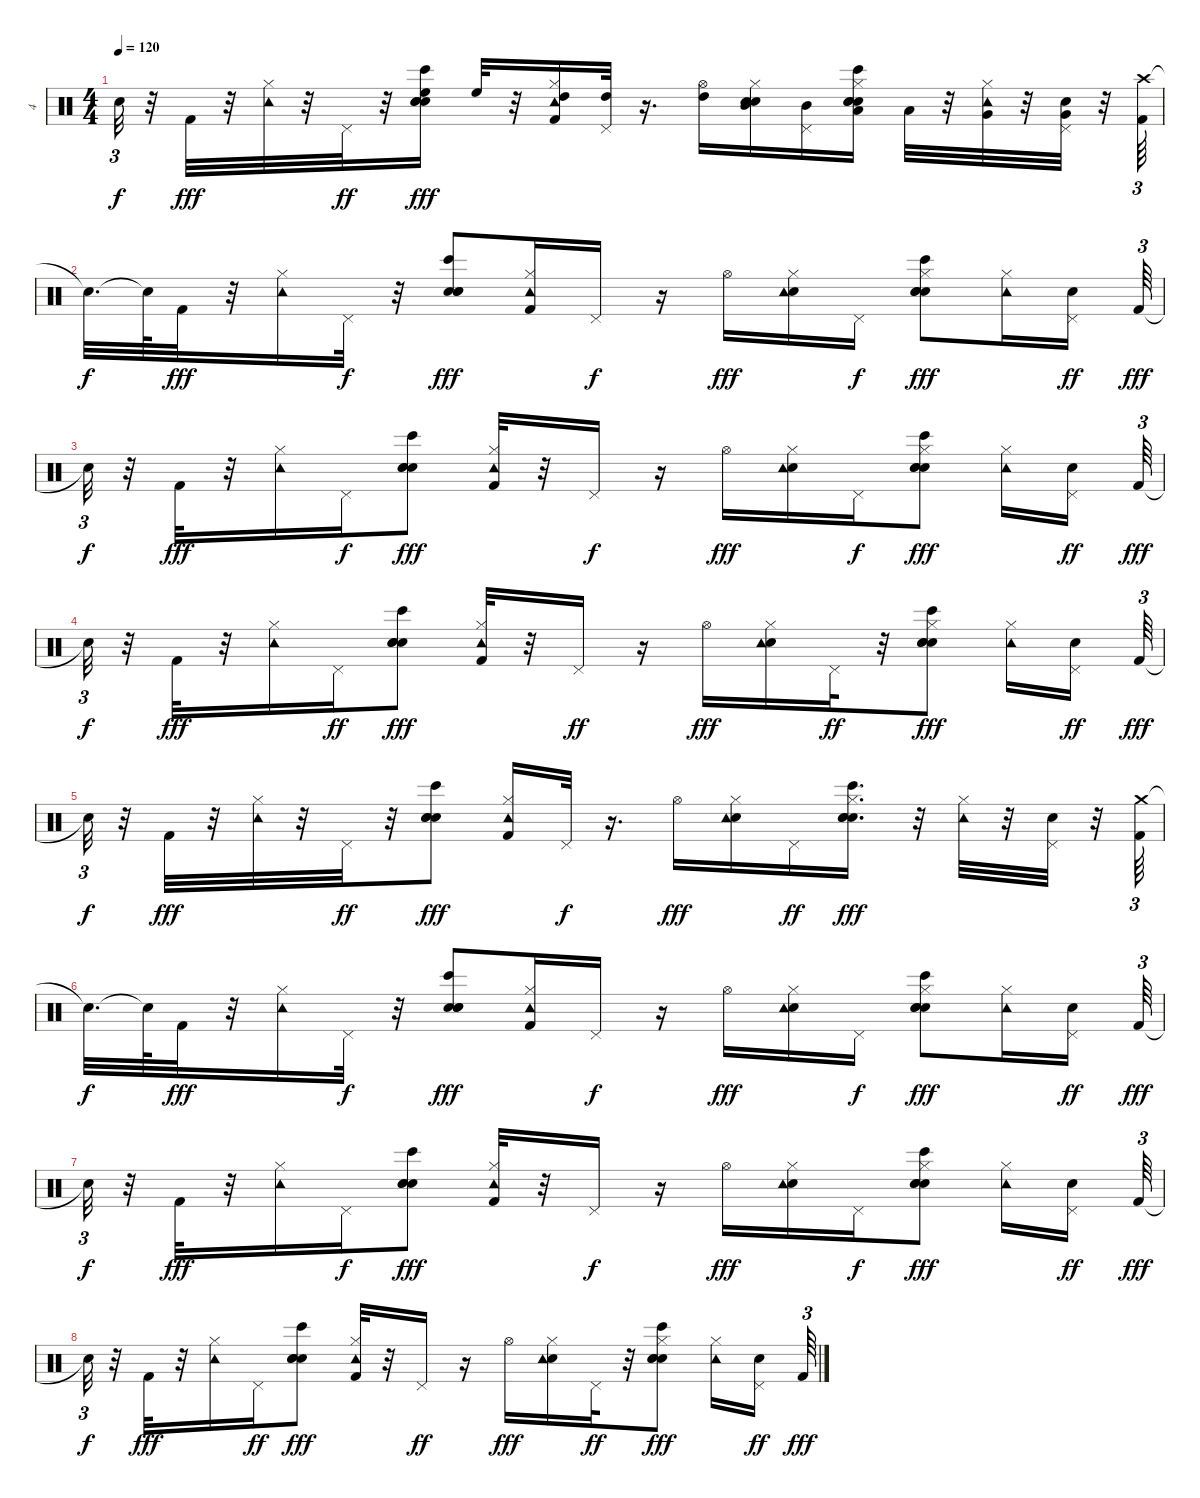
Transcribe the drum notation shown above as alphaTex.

\track ("4" "4") {instrument percussion}
\staff {score}
\articulation defaults
\ts (4 4)
\tempo 120
\clef neutral
\ks c "Snare (hit)"{t}.32{tu (3 2) dy f}
r.32 "Kick (hit) 2".32{dy fff} r.32 ("Hi-Hat (closed)" "Tambourine (hit)").32 r.32 "Pedal Hi-Hat (hit)".32{dy ff} r.32 ("Snare (hit) 2" "Electric Snare (hit)" "Bongo High (hit)" "Hand Clap (hit)" "High Floor Tom (hit)").16{dy fff} "High Floor Tom (hit)".32 r.32 ("Hi-Hat (closed)" "High Tom (hit)" "Kick (hit) 2" "Tambourine (hit)").16 ("Pedal Hi-Hat (hit)" "High Tom (hit)").32 r.16{d} ("Hi-Hat (open)" "High Tom (hit)").16 ("Snare (hit) 2" "Hi-Hat (closed)" "Mid Tom (hit)" "Electric Snare (hit)" "Tambourine (hit)").16 ("Pedal Hi-Hat (hit)" "Mid Tom (hit)").16 ("Snare (hit) 2" "Electric Snare (hit)" "Hand Clap (hit)" "Hi-Hat (closed)" "Bongo High (hit)" "Low Tom (hit)").16 "Low Tom (hit)".32 r.32 ("Hi-Hat (closed)" "Very Low Tom (hit)" "Tambourine (hit)").32 r.32 ("Pedal Hi-Hat (hit)" "Snare (hit) 2" "Very Low Tom (hit)").32 r.32 ("Crash high (hit)" "Kick (hit) 2").64{tu (3 2)} |
"Snare (hit)"{t}.32{d dy f} "Snare (hit)"{t}.64 "Kick (hit) 2".32{dy fff} r.32 ("Hi-Hat (closed)" "Tambourine (hit)").16 "Pedal Hi-Hat (hit)".32{dy f} r.32 ("Snare (hit) 2" "Bongo High (hit)" "Hand Clap (hit)" "Electric Snare (hit)").8{dy fff} ("Hi-Hat (closed)" "Tambourine (hit)" "Kick (hit) 2").16 "Pedal Hi-Hat (hit)".16{dy f} r.16 "Hi-Hat (open)".16{dy fff} ("Hi-Hat (closed)" "Snare (hit) 2" "Tambourine (hit)").16 "Pedal Hi-Hat (hit)".16{dy f} ("Snare (hit) 2" "Hi-Hat (closed)" "Hand Clap (hit)" "Bongo High (hit)" "Electric Snare (hit)").8{dy fff} ("Hi-Hat (closed)" "Tambourine (hit)").16 ("Pedal Hi-Hat (hit)" "Snare (hit) 2").16{dy ff} "Kick (hit) 2".64{tu (3 2) dy fff} |
"Snare (hit)"{t}.32{tu (3 2) dy f} r.32 "Kick (hit) 2".32{dy fff} r.32 ("Hi-Hat (closed)" "Tambourine (hit)").16 "Pedal Hi-Hat (hit)".16{dy f} ("Snare (hit) 2" "Electric Snare (hit)" "Bongo High (hit)" "Hand Clap (hit)").8{dy fff} ("Hi-Hat (closed)" "Kick (hit) 2" "Tambourine (hit)").32 r.32 "Pedal Hi-Hat (hit)".16{dy f} r.16 "Hi-Hat (open)".16{dy fff} ("Snare (hit) 2" "Hi-Hat (closed)" "Tambourine (hit)").16 "Pedal Hi-Hat (hit)".16{dy f} ("Snare (hit) 2" "Hand Clap (hit)" "Hi-Hat (closed)" "Bongo High (hit)" "Electric Snare (hit)").8{dy fff} ("Hi-Hat (closed)" "Tambourine (hit)").16 ("Pedal Hi-Hat (hit)" "Snare (hit) 2").16{dy ff beam splitsecondary} "Kick (hit) 2".64{tu (3 2) dy fff} |
"Snare (hit)"{t}.32{tu (3 2) dy f} r.32 "Kick (hit) 2".32{dy fff} r.32 ("Hi-Hat (closed)" "Tambourine (hit)").16 "Pedal Hi-Hat (hit)".16{dy ff} ("Snare (hit) 2" "Electric Snare (hit)" "Bongo High (hit)" "Hand Clap (hit)").8{dy fff} ("Hi-Hat (closed)" "Kick (hit) 2" "Tambourine (hit)").32 r.32 "Pedal Hi-Hat (hit)".16{dy ff} r.16 "Hi-Hat (open)".16{dy fff} ("Snare (hit) 2" "Hi-Hat (closed)" "Tambourine (hit)").16 "Pedal Hi-Hat (hit)".32{dy ff} r.32 ("Snare (hit) 2" "Electric Snare (hit)" "Hi-Hat (closed)" "Hand Clap (hit)" "Bongo High (hit)").8{dy fff} ("Hi-Hat (closed)" "Tambourine (hit)").16 ("Pedal Hi-Hat (hit)" "Snare (hit) 2").16{dy ff beam splitsecondary} "Kick (hit) 2".64{tu (3 2) dy fff} |
"Snare (hit)"{t}.32{tu (3 2) dy f} r.32 "Kick (hit) 2".32{dy fff} r.32 ("Hi-Hat (closed)" "Tambourine (hit)").32 r.32 "Pedal Hi-Hat (hit)".32{dy ff} r.32 ("Snare (hit) 2" "Electric Snare (hit)" "Bongo High (hit)" "Hand Clap (hit)").8{dy fff} ("Hi-Hat (closed)" "Kick (hit) 2" "Tambourine (hit)").16 "Pedal Hi-Hat (hit)".32{dy f} r.16{d} "Hi-Hat (open)".16{dy fff} ("Snare (hit) 2" "Hi-Hat (closed)" "Tambourine (hit)").16 "Pedal Hi-Hat (hit)".16{dy ff} ("Snare (hit) 2" "Electric Snare (hit)" "Hand Clap (hit)" "Hi-Hat (closed)" "Bongo High (hit)").16{d dy fff} r.32 ("Hi-Hat (closed)" "Tambourine (hit)").32 r.32 ("Pedal Hi-Hat (hit)" "Snare (hit) 2").32 r.32 ("Crash medium (hit)" "Kick (hit) 2").64{tu (3 2)} |
"Snare (hit)"{t}.32{d dy f} "Snare (hit)"{t}.64 "Kick (hit) 2".32{dy fff} r.32 ("Hi-Hat (closed)" "Tambourine (hit)").16 "Pedal Hi-Hat (hit)".32{dy f} r.32 ("Snare (hit) 2" "Bongo High (hit)" "Hand Clap (hit)" "Electric Snare (hit)").8{dy fff} ("Hi-Hat (closed)" "Tambourine (hit)" "Kick (hit) 2").16 "Pedal Hi-Hat (hit)".16{dy f} r.16 "Hi-Hat (open)".16{dy fff} ("Hi-Hat (closed)" "Snare (hit) 2" "Tambourine (hit)").16 "Pedal Hi-Hat (hit)".16{dy f} ("Snare (hit) 2" "Hi-Hat (closed)" "Hand Clap (hit)" "Bongo High (hit)" "Electric Snare (hit)").8{dy fff} ("Hi-Hat (closed)" "Tambourine (hit)").16 ("Pedal Hi-Hat (hit)" "Snare (hit) 2").16{dy ff} "Kick (hit) 2".64{tu (3 2) dy fff} |
"Snare (hit)"{t}.32{tu (3 2) dy f} r.32 "Kick (hit) 2".32{dy fff} r.32 ("Hi-Hat (closed)" "Tambourine (hit)").16 "Pedal Hi-Hat (hit)".16{dy f} ("Snare (hit) 2" "Electric Snare (hit)" "Bongo High (hit)" "Hand Clap (hit)").8{dy fff} ("Hi-Hat (closed)" "Kick (hit) 2" "Tambourine (hit)").32 r.32 "Pedal Hi-Hat (hit)".16{dy f} r.16 "Hi-Hat (open)".16{dy fff} ("Snare (hit) 2" "Hi-Hat (closed)" "Tambourine (hit)").16 "Pedal Hi-Hat (hit)".16{dy f} ("Snare (hit) 2" "Hand Clap (hit)" "Hi-Hat (closed)" "Bongo High (hit)" "Electric Snare (hit)").8{dy fff} ("Hi-Hat (closed)" "Tambourine (hit)").16 ("Pedal Hi-Hat (hit)" "Snare (hit) 2").16{dy ff beam splitsecondary} "Kick (hit) 2".64{tu (3 2) dy fff} |
"Snare (hit)"{t}.32{tu (3 2) dy f} r.32 "Kick (hit) 2".32{dy fff} r.32 ("Hi-Hat (closed)" "Tambourine (hit)").16 "Pedal Hi-Hat (hit)".16{dy ff} ("Snare (hit) 2" "Electric Snare (hit)" "Bongo High (hit)" "Hand Clap (hit)").8{dy fff} ("Hi-Hat (closed)" "Kick (hit) 2" "Tambourine (hit)").32 r.32 "Pedal Hi-Hat (hit)".16{dy ff} r.16 "Hi-Hat (open)".16{dy fff} ("Snare (hit) 2" "Hi-Hat (closed)" "Tambourine (hit)").16 "Pedal Hi-Hat (hit)".32{dy ff} r.32 ("Snare (hit) 2" "Electric Snare (hit)" "Hi-Hat (closed)" "Hand Clap (hit)" "Bongo High (hit)").8{dy fff} ("Hi-Hat (closed)" "Tambourine (hit)").16 ("Pedal Hi-Hat (hit)" "Snare (hit) 2").16{dy ff beam splitsecondary} "Kick (hit) 2".64{tu (3 2) dy fff}
